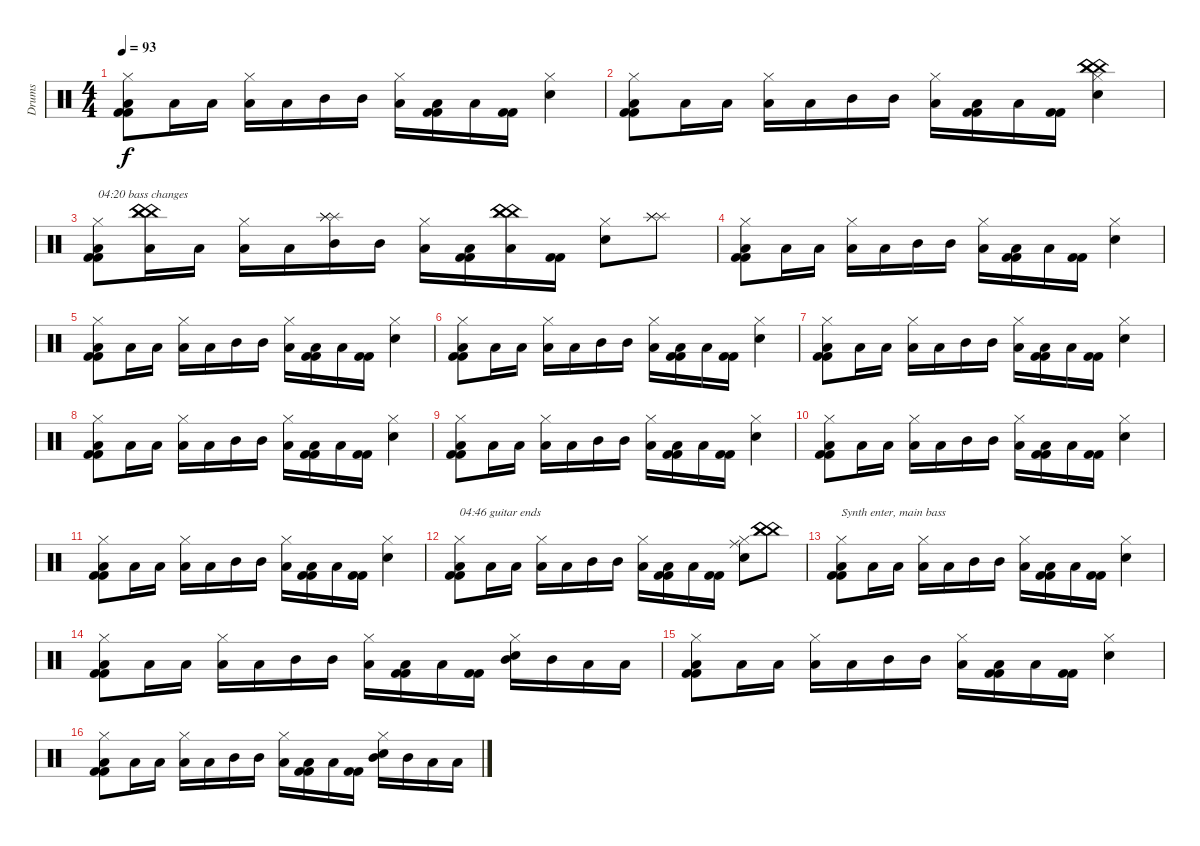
\track ("Drums" "Drums") {instrument percussion}
\staff {score}
\articulation defaults
\ts (4 4)
\tempo 93
\clef neutral
\ks c
("Hi-Hat (closed)" "Low Floor Tom (hit)" "Kick (hit) 2" "Kick (hit) 2").8{dy f} "Low Floor Tom (hit)".16 "Low Tom (hit)".16 ("Hi-Hat (closed)" "Low Tom (hit)").16 "Low Floor Tom (hit)".16 "Mid Tom (hit)".16 "Mid Tom (hit)".16 ("Hi-Hat (closed)" "Low Floor Tom (hit)").16 ("Low Tom (hit)" "Kick (hit) 2" "Kick (hit) 2").16 "Low Floor Tom (hit)".16 ("Kick (hit) 2" "Kick (hit) 2").16 ("Hi-Hat (closed)" "Snare (hit) 2").4 |
("Hi-Hat (closed)" "Low Floor Tom (hit)" "Kick (hit) 2" "Kick (hit) 2").8 "Low Floor Tom (hit)".16 "Low Tom (hit)".16 ("Hi-Hat (closed)" "Low Tom (hit)").16 "Low Floor Tom (hit)".16 "Mid Tom (hit)".16 "Mid Tom (hit)".16 ("Hi-Hat (closed)" "Low Floor Tom (hit)").16 ("Low Tom (hit)" "Kick (hit) 2" "Kick (hit) 2").16 "Low Floor Tom (hit)".16 ("Kick (hit) 2" "Kick (hit) 2").16 ("Hi-Hat (closed)" "China (hit)" "China (hit)" "China (hit)" "Snare (hit) 2").4 |
("Hi-Hat (closed)" "Low Floor Tom (hit)" "Kick (hit) 2" "Kick (hit) 2").8{txt "04:20 bass changes"} ("China (hit)" "China (hit)" "Low Floor Tom (hit)" "China (hit)").16 "Low Tom (hit)".16 ("Hi-Hat (closed)" "Low Tom (hit)").16 "Low Floor Tom (hit)".16 ("Splash (hit)" "Mid Tom (hit)" "Splash (hit)" "Splash (hit)").16 "Mid Tom (hit)".16 ("Hi-Hat (closed)" "Low Floor Tom (hit)").16 ("Low Tom (hit)" "Kick (hit) 2" "Kick (hit) 2").16 ("China (hit)" "China (hit)" "Low Floor Tom (hit)" "China (hit)").16 ("Kick (hit) 2" "Kick (hit) 2").16 ("Hi-Hat (closed)" "Snare (hit) 2").8 ("Splash (hit)" "Splash (hit)" "Splash (hit)").8 |
("Hi-Hat (closed)" "Low Floor Tom (hit)" "Kick (hit) 2" "Kick (hit) 2").8 "Low Floor Tom (hit)".16 "Low Tom (hit)".16 ("Hi-Hat (closed)" "Low Tom (hit)").16 "Low Floor Tom (hit)".16 "Mid Tom (hit)".16 "Mid Tom (hit)".16 ("Hi-Hat (closed)" "Low Floor Tom (hit)").16 ("Low Tom (hit)" "Kick (hit) 2" "Kick (hit) 2").16 "Low Floor Tom (hit)".16 ("Kick (hit) 2" "Kick (hit) 2").16 ("Hi-Hat (closed)" "Snare (hit) 2").4 |
("Hi-Hat (closed)" "Low Floor Tom (hit)" "Kick (hit) 2" "Kick (hit) 2").8 "Low Floor Tom (hit)".16 "Low Tom (hit)".16 ("Hi-Hat (closed)" "Low Tom (hit)").16 "Low Floor Tom (hit)".16 "Mid Tom (hit)".16 "Mid Tom (hit)".16 ("Hi-Hat (closed)" "Low Floor Tom (hit)").16 ("Low Tom (hit)" "Kick (hit) 2" "Kick (hit) 2").16 "Low Floor Tom (hit)".16 ("Kick (hit) 2" "Kick (hit) 2").16 ("Hi-Hat (closed)" "Snare (hit) 2").4 |
("Hi-Hat (closed)" "Low Floor Tom (hit)" "Kick (hit) 2" "Kick (hit) 2").8 "Low Floor Tom (hit)".16 "Low Tom (hit)".16 ("Hi-Hat (closed)" "Low Tom (hit)").16 "Low Floor Tom (hit)".16 "Mid Tom (hit)".16 "Mid Tom (hit)".16 ("Hi-Hat (closed)" "Low Floor Tom (hit)").16 ("Low Tom (hit)" "Kick (hit) 2" "Kick (hit) 2").16 "Low Floor Tom (hit)".16 ("Kick (hit) 2" "Kick (hit) 2").16 ("Hi-Hat (closed)" "Snare (hit) 2").4 |
("Hi-Hat (closed)" "Low Floor Tom (hit)" "Kick (hit) 2" "Kick (hit) 2").8 "Low Floor Tom (hit)".16 "Low Tom (hit)".16 ("Hi-Hat (closed)" "Low Tom (hit)").16 "Low Floor Tom (hit)".16 "Mid Tom (hit)".16 "Mid Tom (hit)".16 ("Hi-Hat (closed)" "Low Floor Tom (hit)").16 ("Low Tom (hit)" "Kick (hit) 2" "Kick (hit) 2").16 "Low Floor Tom (hit)".16 ("Kick (hit) 2" "Kick (hit) 2").16 ("Hi-Hat (closed)" "Snare (hit) 2").4 |
("Hi-Hat (closed)" "Low Floor Tom (hit)" "Kick (hit) 2" "Kick (hit) 2").8 "Low Floor Tom (hit)".16 "Low Tom (hit)".16 ("Hi-Hat (closed)" "Low Tom (hit)").16 "Low Floor Tom (hit)".16 "Mid Tom (hit)".16 "Mid Tom (hit)".16 ("Hi-Hat (closed)" "Low Floor Tom (hit)").16 ("Low Tom (hit)" "Kick (hit) 2" "Kick (hit) 2").16 "Low Floor Tom (hit)".16 ("Kick (hit) 2" "Kick (hit) 2").16 ("Hi-Hat (closed)" "Snare (hit) 2").4 |
("Hi-Hat (closed)" "Low Floor Tom (hit)" "Kick (hit) 2" "Kick (hit) 2").8 "Low Floor Tom (hit)".16 "Low Tom (hit)".16 ("Hi-Hat (closed)" "Low Tom (hit)").16 "Low Floor Tom (hit)".16 "Mid Tom (hit)".16 "Mid Tom (hit)".16 ("Hi-Hat (closed)" "Low Floor Tom (hit)").16 ("Low Tom (hit)" "Kick (hit) 2" "Kick (hit) 2").16 "Low Floor Tom (hit)".16 ("Kick (hit) 2" "Kick (hit) 2").16 ("Hi-Hat (closed)" "Snare (hit) 2").4 |
("Hi-Hat (closed)" "Low Floor Tom (hit)" "Kick (hit) 2" "Kick (hit) 2").8 "Low Floor Tom (hit)".16 "Low Tom (hit)".16 ("Hi-Hat (closed)" "Low Tom (hit)").16 "Low Floor Tom (hit)".16 "Mid Tom (hit)".16 "Mid Tom (hit)".16 ("Hi-Hat (closed)" "Low Floor Tom (hit)").16 ("Low Tom (hit)" "Kick (hit) 2" "Kick (hit) 2").16 "Low Floor Tom (hit)".16 ("Kick (hit) 2" "Kick (hit) 2").16 ("Hi-Hat (closed)" "Snare (hit) 2").4 |
("Hi-Hat (closed)" "Low Floor Tom (hit)" "Kick (hit) 2" "Kick (hit) 2").8 "Low Floor Tom (hit)".16 "Low Tom (hit)".16 ("Hi-Hat (closed)" "Low Tom (hit)").16 "Low Floor Tom (hit)".16 "Mid Tom (hit)".16 "Mid Tom (hit)".16 ("Hi-Hat (closed)" "Low Floor Tom (hit)").16 ("Low Tom (hit)" "Kick (hit) 2" "Kick (hit) 2").16 "Low Floor Tom (hit)".16 ("Kick (hit) 2" "Kick (hit) 2").16 ("Hi-Hat (closed)" "Snare (hit) 2").4 |
("Hi-Hat (closed)" "Low Floor Tom (hit)" "Kick (hit) 2" "Kick (hit) 2").8{txt "04:46 guitar ends"} "Low Floor Tom (hit)".16 "Low Tom (hit)".16 ("Hi-Hat (closed)" "Low Tom (hit)").16 "Low Floor Tom (hit)".16 "Mid Tom (hit)".16 "Mid Tom (hit)".16 ("Hi-Hat (closed)" "Low Floor Tom (hit)").16 ("Low Tom (hit)" "Kick (hit) 2" "Kick (hit) 2").16 "Low Floor Tom (hit)".16 ("Kick (hit) 2" "Kick (hit) 2").16 ("Hi-Hat (closed)" "Ride (middle)" "Snare (hit) 2").8 ("China (hit)" "China (hit)" "China (hit)").8 |
("Hi-Hat (closed)" "Low Floor Tom (hit)" "Kick (hit) 2" "Kick (hit) 2").8{txt "Synth enter, main bass"} "Low Floor Tom (hit)".16 "Low Tom (hit)".16 ("Hi-Hat (closed)" "Low Tom (hit)").16 "Low Floor Tom (hit)".16 "Mid Tom (hit)".16 "Mid Tom (hit)".16 ("Hi-Hat (closed)" "Low Floor Tom (hit)").16 ("Low Tom (hit)" "Kick (hit) 2" "Kick (hit) 2").16 "Low Floor Tom (hit)".16 ("Kick (hit) 2" "Kick (hit) 2").16 ("Hi-Hat (closed)" "Snare (hit) 2").4 |
("Hi-Hat (closed)" "Low Floor Tom (hit)" "Kick (hit) 2" "Kick (hit) 2").8 "Low Floor Tom (hit)".16 "Low Tom (hit)".16 ("Hi-Hat (closed)" "Low Tom (hit)").16 "Low Floor Tom (hit)".16 "Mid Tom (hit)".16 "Mid Tom (hit)".16 ("Hi-Hat (closed)" "Low Floor Tom (hit)").16 ("Low Tom (hit)" "Kick (hit) 2" "Kick (hit) 2").16 "Low Floor Tom (hit)".16 ("Kick (hit) 2" "Kick (hit) 2").16 ("Hi-Hat (closed)" "Mid Tom (hit)" "Snare (hit) 2").16 "Mid Tom (hit)".16 "Low Tom (hit)".16 "Low Floor Tom (hit)".16 |
("Hi-Hat (closed)" "Low Floor Tom (hit)" "Kick (hit) 2" "Kick (hit) 2").8 "Low Floor Tom (hit)".16 "Low Tom (hit)".16 ("Hi-Hat (closed)" "Low Tom (hit)").16 "Low Floor Tom (hit)".16 "Mid Tom (hit)".16 "Mid Tom (hit)".16 ("Hi-Hat (closed)" "Low Floor Tom (hit)").16 ("Low Tom (hit)" "Kick (hit) 2" "Kick (hit) 2").16 "Low Floor Tom (hit)".16 ("Kick (hit) 2" "Kick (hit) 2").16 ("Hi-Hat (closed)" "Snare (hit) 2").4 |
("Hi-Hat (closed)" "Low Floor Tom (hit)" "Kick (hit) 2" "Kick (hit) 2").8 "Low Floor Tom (hit)".16 "Low Tom (hit)".16 ("Hi-Hat (closed)" "Low Tom (hit)").16 "Low Floor Tom (hit)".16 "Mid Tom (hit)".16 "Mid Tom (hit)".16 ("Hi-Hat (closed)" "Low Floor Tom (hit)").16 ("Low Tom (hit)" "Kick (hit) 2" "Kick (hit) 2").16 "Low Floor Tom (hit)".16 ("Kick (hit) 2" "Kick (hit) 2").16 ("Hi-Hat (closed)" "Mid Tom (hit)" "Snare (hit) 2").16 "Mid Tom (hit)".16 "Low Tom (hit)".16 "Low Floor Tom (hit)".16
